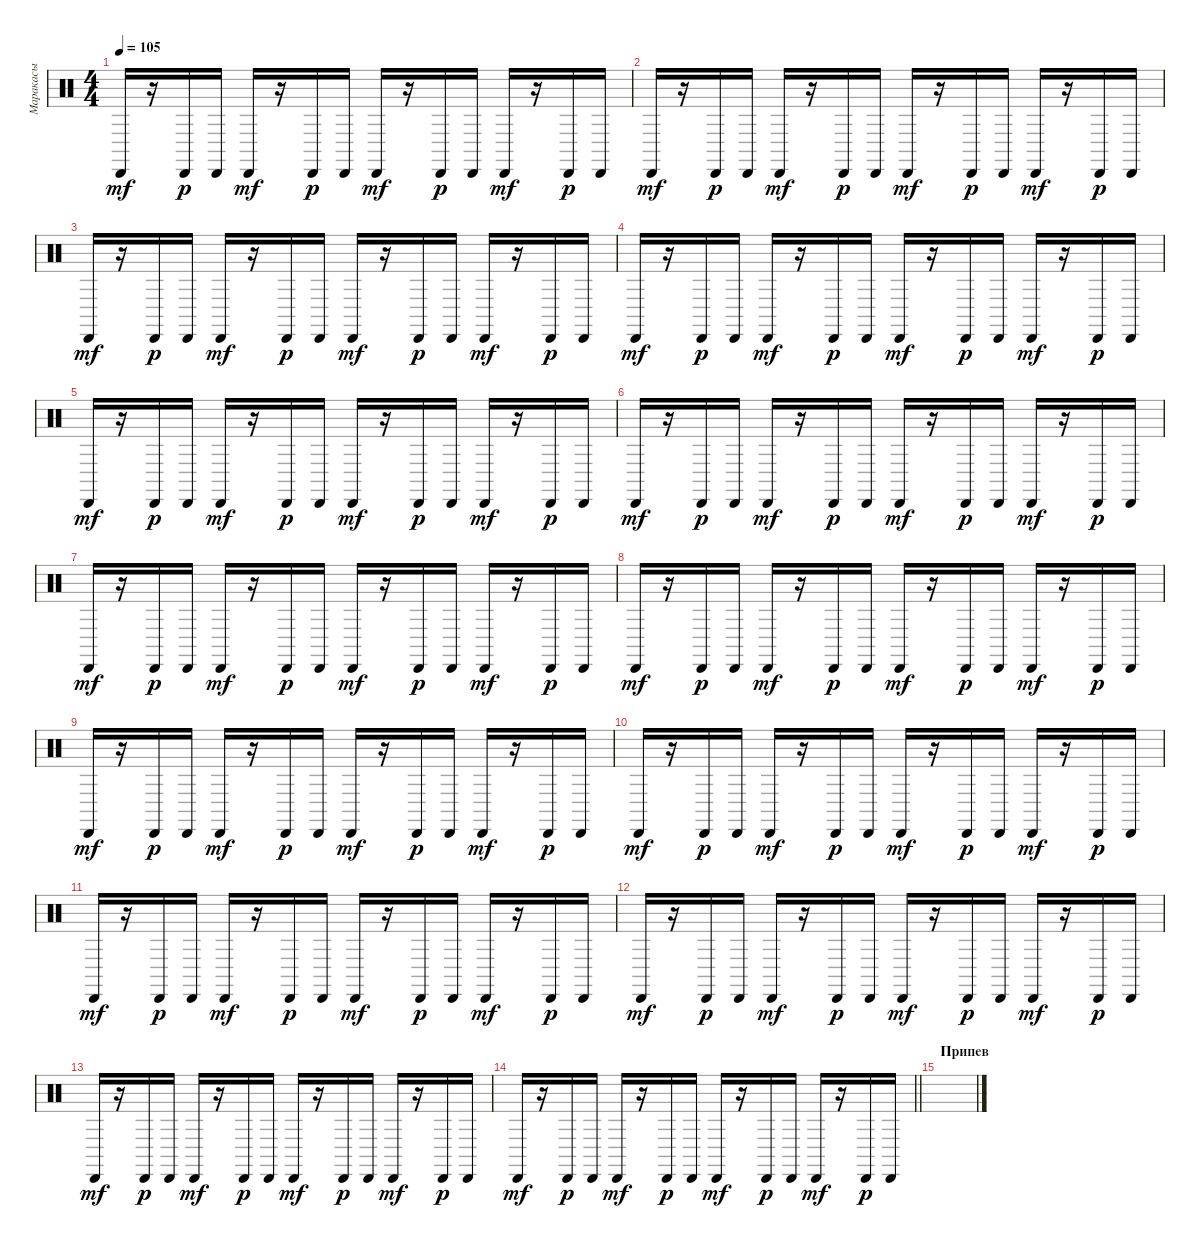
\track ("Маракасы" "Маракасы") {instrument percussion}
\staff {score}
\articulation defaults
\ts (4 4)
\tempo 105
\clef neutral
\ks c "Cabasa (hit)".16{dy mf}
r.16 "Cabasa (hit)".16{dy p} "Cabasa (hit)".16 "Cabasa (hit)".16{dy mf} r.16 "Cabasa (hit)".16{dy p} "Cabasa (hit)".16 "Cabasa (hit)".16{dy mf} r.16 "Cabasa (hit)".16{dy p} "Cabasa (hit)".16 "Cabasa (hit)".16{dy mf} r.16 "Cabasa (hit)".16{dy p} "Cabasa (hit)".16 |
"Cabasa (hit)".16{dy mf} r.16 "Cabasa (hit)".16{dy p} "Cabasa (hit)".16 "Cabasa (hit)".16{dy mf} r.16 "Cabasa (hit)".16{dy p} "Cabasa (hit)".16 "Cabasa (hit)".16{dy mf} r.16 "Cabasa (hit)".16{dy p} "Cabasa (hit)".16 "Cabasa (hit)".16{dy mf} r.16 "Cabasa (hit)".16{dy p} "Cabasa (hit)".16 |
"Cabasa (hit)".16{dy mf} r.16 "Cabasa (hit)".16{dy p} "Cabasa (hit)".16 "Cabasa (hit)".16{dy mf} r.16 "Cabasa (hit)".16{dy p} "Cabasa (hit)".16 "Cabasa (hit)".16{dy mf} r.16 "Cabasa (hit)".16{dy p} "Cabasa (hit)".16 "Cabasa (hit)".16{dy mf} r.16 "Cabasa (hit)".16{dy p} "Cabasa (hit)".16 |
"Cabasa (hit)".16{dy mf} r.16 "Cabasa (hit)".16{dy p} "Cabasa (hit)".16 "Cabasa (hit)".16{dy mf} r.16 "Cabasa (hit)".16{dy p} "Cabasa (hit)".16 "Cabasa (hit)".16{dy mf} r.16 "Cabasa (hit)".16{dy p} "Cabasa (hit)".16 "Cabasa (hit)".16{dy mf} r.16 "Cabasa (hit)".16{dy p} "Cabasa (hit)".16 |
"Cabasa (hit)".16{dy mf} r.16 "Cabasa (hit)".16{dy p} "Cabasa (hit)".16 "Cabasa (hit)".16{dy mf} r.16 "Cabasa (hit)".16{dy p} "Cabasa (hit)".16 "Cabasa (hit)".16{dy mf} r.16 "Cabasa (hit)".16{dy p} "Cabasa (hit)".16 "Cabasa (hit)".16{dy mf} r.16 "Cabasa (hit)".16{dy p} "Cabasa (hit)".16 |
"Cabasa (hit)".16{dy mf} r.16 "Cabasa (hit)".16{dy p} "Cabasa (hit)".16 "Cabasa (hit)".16{dy mf} r.16 "Cabasa (hit)".16{dy p} "Cabasa (hit)".16 "Cabasa (hit)".16{dy mf} r.16 "Cabasa (hit)".16{dy p} "Cabasa (hit)".16 "Cabasa (hit)".16{dy mf} r.16 "Cabasa (hit)".16{dy p} "Cabasa (hit)".16 |
"Cabasa (hit)".16{dy mf} r.16 "Cabasa (hit)".16{dy p} "Cabasa (hit)".16 "Cabasa (hit)".16{dy mf} r.16 "Cabasa (hit)".16{dy p} "Cabasa (hit)".16 "Cabasa (hit)".16{dy mf} r.16 "Cabasa (hit)".16{dy p} "Cabasa (hit)".16 "Cabasa (hit)".16{dy mf} r.16 "Cabasa (hit)".16{dy p} "Cabasa (hit)".16 |
"Cabasa (hit)".16{dy mf} r.16 "Cabasa (hit)".16{dy p} "Cabasa (hit)".16 "Cabasa (hit)".16{dy mf} r.16 "Cabasa (hit)".16{dy p} "Cabasa (hit)".16 "Cabasa (hit)".16{dy mf} r.16 "Cabasa (hit)".16{dy p} "Cabasa (hit)".16 "Cabasa (hit)".16{dy mf} r.16 "Cabasa (hit)".16{dy p} "Cabasa (hit)".16 |
"Cabasa (hit)".16{dy mf} r.16 "Cabasa (hit)".16{dy p} "Cabasa (hit)".16 "Cabasa (hit)".16{dy mf} r.16 "Cabasa (hit)".16{dy p} "Cabasa (hit)".16 "Cabasa (hit)".16{dy mf} r.16 "Cabasa (hit)".16{dy p} "Cabasa (hit)".16 "Cabasa (hit)".16{dy mf} r.16 "Cabasa (hit)".16{dy p} "Cabasa (hit)".16 |
"Cabasa (hit)".16{dy mf} r.16 "Cabasa (hit)".16{dy p} "Cabasa (hit)".16 "Cabasa (hit)".16{dy mf} r.16 "Cabasa (hit)".16{dy p} "Cabasa (hit)".16 "Cabasa (hit)".16{dy mf} r.16 "Cabasa (hit)".16{dy p} "Cabasa (hit)".16 "Cabasa (hit)".16{dy mf} r.16 "Cabasa (hit)".16{dy p} "Cabasa (hit)".16 |
"Cabasa (hit)".16{dy mf} r.16 "Cabasa (hit)".16{dy p} "Cabasa (hit)".16 "Cabasa (hit)".16{dy mf} r.16 "Cabasa (hit)".16{dy p} "Cabasa (hit)".16 "Cabasa (hit)".16{dy mf} r.16 "Cabasa (hit)".16{dy p} "Cabasa (hit)".16 "Cabasa (hit)".16{dy mf} r.16 "Cabasa (hit)".16{dy p} "Cabasa (hit)".16 |
"Cabasa (hit)".16{dy mf} r.16 "Cabasa (hit)".16{dy p} "Cabasa (hit)".16 "Cabasa (hit)".16{dy mf} r.16 "Cabasa (hit)".16{dy p} "Cabasa (hit)".16 "Cabasa (hit)".16{dy mf} r.16 "Cabasa (hit)".16{dy p} "Cabasa (hit)".16 "Cabasa (hit)".16{dy mf} r.16 "Cabasa (hit)".16{dy p} "Cabasa (hit)".16 |
"Cabasa (hit)".16{dy mf} r.16 "Cabasa (hit)".16{dy p} "Cabasa (hit)".16 "Cabasa (hit)".16{dy mf} r.16 "Cabasa (hit)".16{dy p} "Cabasa (hit)".16 "Cabasa (hit)".16{dy mf} r.16 "Cabasa (hit)".16{dy p} "Cabasa (hit)".16 "Cabasa (hit)".16{dy mf} r.16 "Cabasa (hit)".16{dy p} "Cabasa (hit)".16 |
\barLineRight lightlight "Cabasa (hit)".16{dy mf}
r.16 "Cabasa (hit)".16{dy p} "Cabasa (hit)".16 "Cabasa (hit)".16{dy mf} r.16 "Cabasa (hit)".16{dy p} "Cabasa (hit)".16 "Cabasa (hit)".16{dy mf} r.16 "Cabasa (hit)".16{dy p} "Cabasa (hit)".16 "Cabasa (hit)".16{dy mf} r.16 "Cabasa (hit)".16{dy p} "Cabasa (hit)".16 |
\section ("" "Припев")
